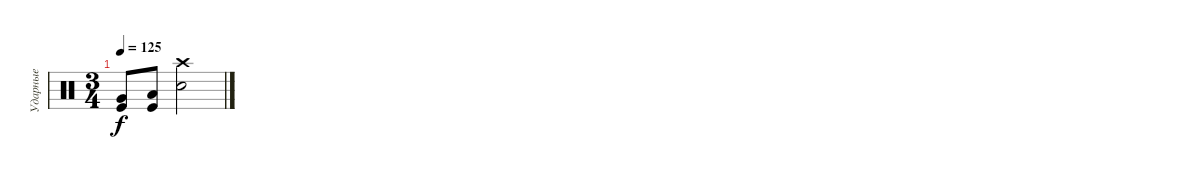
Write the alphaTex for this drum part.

\track ("Ударные" "Ударные") {instrument percussion}
\staff {score}
\articulation defaults
\ts (3 4)
\tempo 125
\clef neutral
\ks c
("Very Low Tom (hit)" "Kick (hit)").8{dy f} ("Low Floor Tom (hit)" "Kick (hit)").8 ("Crash high (hit)" "Electric Snare (hit)").2
